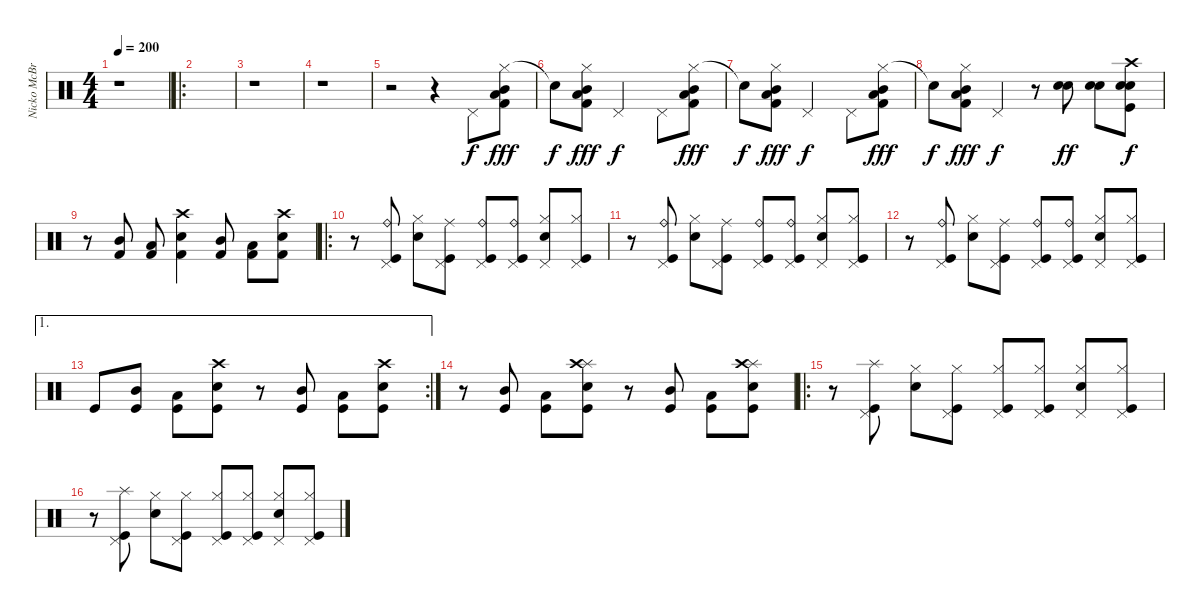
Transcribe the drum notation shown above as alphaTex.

\track ("Nicko McBrain" "Nicko McBr") {instrument percussion}
\staff {score}
\articulation defaults
\ts (4 4)
\tempo 200
\clef neutral
\ks c
r.1{dy f} |
\ro
|
r.1 |
r.1 |
r.2 r.4 "Pedal Hi-Hat (hit)".8 ("Hi-Hat (closed)" "Low Tom (hit)" "Mid Tom (hit)" "Kick (hit) 2").8{dy fff} |
"Snare (hit)"{t}.8{dy f} ("Hi-Hat (closed)" "Low Tom (hit)" "Mid Tom (hit)" "Kick (hit) 2").8{dy fff} "Pedal Hi-Hat (hit)".2{dy f} "Pedal Hi-Hat (hit)".8 ("Hi-Hat (closed)" "Low Tom (hit)" "Mid Tom (hit)" "Kick (hit) 2").8{dy fff} |
"Snare (hit)"{t}.8{dy f} ("Hi-Hat (closed)" "Low Tom (hit)" "Mid Tom (hit)" "Kick (hit) 2").8{dy fff} "Pedal Hi-Hat (hit)".2{dy f} "Pedal Hi-Hat (hit)".8 ("Hi-Hat (closed)" "Low Tom (hit)" "Mid Tom (hit)" "Kick (hit) 2").8{dy fff} |
"Snare (hit)"{t}.8{dy f} ("Hi-Hat (closed)" "Low Tom (hit)" "Mid Tom (hit)" "Kick (hit) 2").8{dy fff} "Pedal Hi-Hat (hit)".4{dy f} r.8 ("Electric Snare (hit)" "Snare (hit) 2").8{dy ff} ("Electric Snare (hit)" "Snare (hit) 2").8 ("Kick (hit)" "Crash high (hit)" "Electric Snare (hit)" "Snare (hit) 2").8{dy f} |
r.8 ("Mid Tom (hit)" "Kick (hit) 2").8 ("Low Tom (hit)" "Kick (hit) 2").8 ("Crash high (hit)" "Electric Snare (hit)" "Kick (hit) 2").4 ("Mid Tom (hit)" "Kick (hit) 2").8 ("Low Tom (hit)" "Kick (hit) 2").8 ("Crash high (hit)" "Electric Snare (hit)" "Kick (hit) 2").8 |
\ro
r.8 ("Ride (bell)" "Pedal Hi-Hat (hit)" "Kick (hit)").8 ("Hi-Hat (closed)" "Electric Snare (hit)").8 ("Ride (middle)" "Pedal Hi-Hat (hit)" "Kick (hit)").8 ("Ride (bell)" "Pedal Hi-Hat (hit)" "Kick (hit)").8 ("Ride (bell)" "Pedal Hi-Hat (hit)" "Kick (hit)").8 ("Pedal Hi-Hat (hit)" "Hi-Hat (closed)" "Electric Snare (hit)").8 ("Pedal Hi-Hat (hit)" "Hi-Hat (closed)" "Kick (hit)").8 |
r.8 ("Ride (bell)" "Pedal Hi-Hat (hit)" "Kick (hit)").8 ("Hi-Hat (closed)" "Electric Snare (hit)").8 ("Ride (middle)" "Pedal Hi-Hat (hit)" "Kick (hit)").8 ("Ride (bell)" "Pedal Hi-Hat (hit)" "Kick (hit)").8 ("Ride (bell)" "Pedal Hi-Hat (hit)" "Kick (hit)").8 ("Pedal Hi-Hat (hit)" "Hi-Hat (closed)" "Electric Snare (hit)").8 ("Pedal Hi-Hat (hit)" "Hi-Hat (closed)" "Kick (hit)").8 |
r.8 ("Ride (bell)" "Pedal Hi-Hat (hit)" "Kick (hit)").8 ("Hi-Hat (closed)" "Electric Snare (hit)").8 ("Ride (middle)" "Pedal Hi-Hat (hit)" "Kick (hit)").8 ("Ride (bell)" "Pedal Hi-Hat (hit)" "Kick (hit)").8 ("Ride (bell)" "Pedal Hi-Hat (hit)" "Kick (hit)").8 ("Pedal Hi-Hat (hit)" "Hi-Hat (closed)" "Electric Snare (hit)").8 ("Pedal Hi-Hat (hit)" "Hi-Hat (closed)" "Kick (hit)").8 |
\ae 1
\rc 2 "Kick (hit)".8
("Mid Tom (hit)" "Kick (hit)").8 ("Low Tom (hit)" "Kick (hit)").8 ("Crash high (hit)" "Electric Snare (hit)" "Kick (hit)").8 r.8 ("Mid Tom (hit)" "Kick (hit)").8 ("Low Tom (hit)" "Kick (hit)").8 ("Crash high (hit)" "Electric Snare (hit)" "Kick (hit)").8 |
r.8 ("Mid Tom (hit)" "Kick (hit)").8 ("Low Tom (hit)" "Kick (hit)").8 ("Splash (hit)" "Crash high (hit)" "Electric Snare (hit)" "Kick (hit)").8 r.8 ("Mid Tom (hit)" "Kick (hit)").8 ("Low Tom (hit)" "Kick (hit)").8 ("Splash (hit)" "Crash high (hit)" "Electric Snare (hit)" "Kick (hit)").8 |
\ro
r.8 ("Splash (hit)" "Pedal Hi-Hat (hit)" "Kick (hit)").8 ("Hi-Hat (closed)" "Electric Snare (hit)").8 ("Pedal Hi-Hat (hit)" "Hi-Hat (closed)" "Kick (hit)").8 ("Pedal Hi-Hat (hit)" "Hi-Hat (closed)" "Kick (hit)").8 ("Pedal Hi-Hat (hit)" "Hi-Hat (closed)" "Kick (hit)").8 ("Pedal Hi-Hat (hit)" "Hi-Hat (closed)" "Electric Snare (hit)").8 ("Pedal Hi-Hat (hit)" "Hi-Hat (closed)" "Kick (hit)").8 |
r.8 ("Splash (hit)" "Pedal Hi-Hat (hit)" "Kick (hit)").8 ("Hi-Hat (closed)" "Electric Snare (hit)").8 ("Pedal Hi-Hat (hit)" "Hi-Hat (closed)" "Kick (hit)").8 ("Pedal Hi-Hat (hit)" "Hi-Hat (closed)" "Kick (hit)").8 ("Pedal Hi-Hat (hit)" "Hi-Hat (closed)" "Kick (hit)").8 ("Pedal Hi-Hat (hit)" "Hi-Hat (closed)" "Electric Snare (hit)").8 ("Pedal Hi-Hat (hit)" "Hi-Hat (closed)" "Kick (hit)").8
